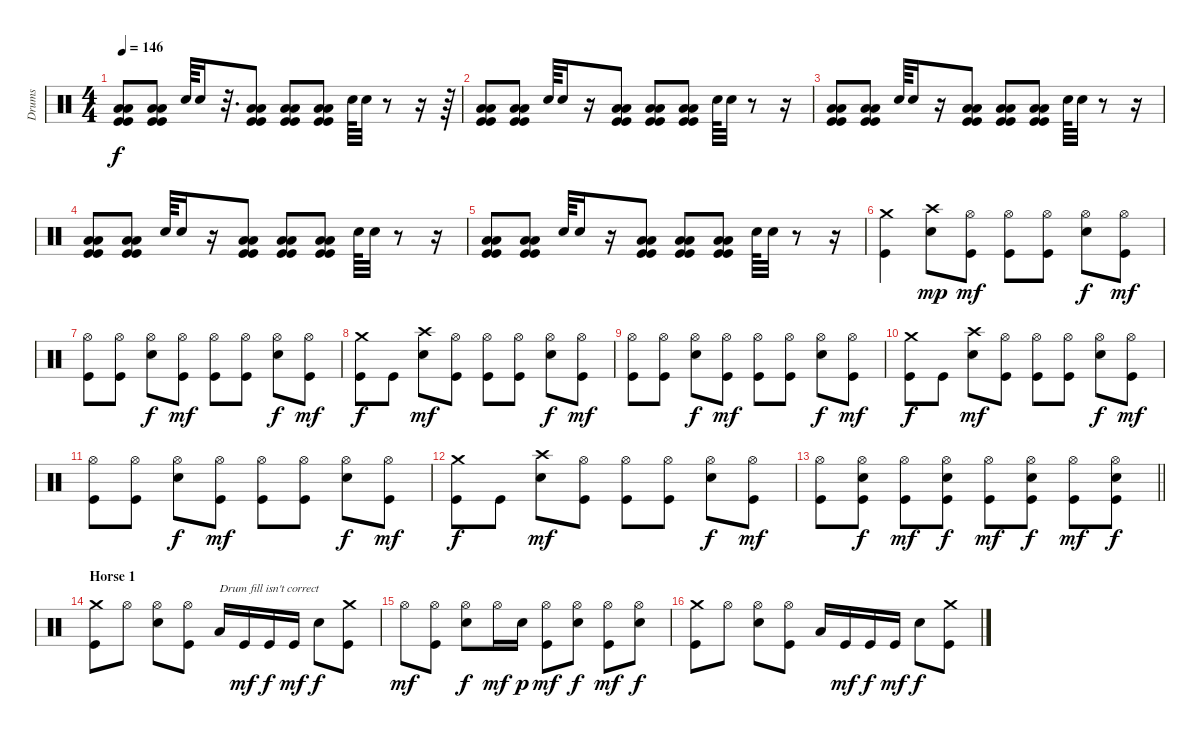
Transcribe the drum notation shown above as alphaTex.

\track ("Drums" "Drums") {instrument percussion}
\staff {score}
\articulation defaults
\ts (4 4)
\tempo 146
\clef neutral
\ks c
("Low Tom (hit)" "Low Floor Tom (hit)" "Kick (hit)" "Kick (hit)").8{dy f} ("Low Tom (hit)" "Low Floor Tom (hit)" "Kick (hit)" "Kick (hit)").8 "Snare (hit) 2".64 "Snare (hit) 2".16 r.32{d} ("Low Tom (hit)" "Low Floor Tom (hit)" "Kick (hit)" "Kick (hit)").8 ("Low Tom (hit)" "Low Floor Tom (hit)" "Kick (hit)" "Kick (hit)").8 ("Low Tom (hit)" "Low Floor Tom (hit)" "Kick (hit)" "Kick (hit)").8 "Snare (hit) 2".64 "Snare (hit) 2".32 r.8 r.16 r.64 |
("Low Tom (hit)" "Low Floor Tom (hit)" "Kick (hit)" "Kick (hit)").8 ("Low Tom (hit)" "Low Floor Tom (hit)" "Kick (hit)" "Kick (hit)").8 "Snare (hit) 2".64 "Snare (hit) 2".16 r.16 ("Low Tom (hit)" "Low Floor Tom (hit)" "Kick (hit)" "Kick (hit)").8 ("Low Tom (hit)" "Low Floor Tom (hit)" "Kick (hit)" "Kick (hit)").8 ("Low Tom (hit)" "Low Floor Tom (hit)" "Kick (hit)" "Kick (hit)").8 "Snare (hit) 2".64 "Snare (hit) 2".32 r.8 r.16 |
("Low Tom (hit)" "Low Floor Tom (hit)" "Kick (hit)" "Kick (hit)").8 ("Low Tom (hit)" "Low Floor Tom (hit)" "Kick (hit)" "Kick (hit)").8 "Snare (hit) 2".64 "Snare (hit) 2".16 r.16 ("Low Tom (hit)" "Low Floor Tom (hit)" "Kick (hit)" "Kick (hit)").8 ("Low Tom (hit)" "Low Floor Tom (hit)" "Kick (hit)" "Kick (hit)").8 ("Low Tom (hit)" "Low Floor Tom (hit)" "Kick (hit)" "Kick (hit)").8 "Snare (hit) 2".64 "Snare (hit) 2".32 r.8 r.16 |
("Low Tom (hit)" "Low Floor Tom (hit)" "Kick (hit)" "Kick (hit)").8 ("Low Tom (hit)" "Low Floor Tom (hit)" "Kick (hit)" "Kick (hit)").8 "Snare (hit) 2".64 "Snare (hit) 2".16 r.16 ("Low Tom (hit)" "Low Floor Tom (hit)" "Kick (hit)" "Kick (hit)").8 ("Low Tom (hit)" "Low Floor Tom (hit)" "Kick (hit)" "Kick (hit)").8 ("Low Tom (hit)" "Low Floor Tom (hit)" "Kick (hit)" "Kick (hit)").8 "Snare (hit) 2".64 "Snare (hit) 2".32 r.8 r.16 |
("Low Tom (hit)" "Low Floor Tom (hit)" "Kick (hit)" "Kick (hit)").8 ("Low Tom (hit)" "Low Floor Tom (hit)" "Kick (hit)" "Kick (hit)").8 "Snare (hit) 2".64 "Snare (hit) 2".16 r.16 ("Low Tom (hit)" "Low Floor Tom (hit)" "Kick (hit)" "Kick (hit)").8 ("Low Tom (hit)" "Low Floor Tom (hit)" "Kick (hit)" "Kick (hit)").8 ("Low Tom (hit)" "Low Floor Tom (hit)" "Kick (hit)" "Kick (hit)").8 "Snare (hit) 2".64 "Snare (hit) 2".32 r.8 r.16 |
("Crash medium (hit)" "Kick (hit)").4 ("Crash high (hit)" "Snare (hit) 2").8{dy mp} ("Hi-Hat (open)" "Kick (hit)").8{dy mf} ("Hi-Hat (open)" "Kick (hit)").8 ("Hi-Hat (open)" "Kick (hit)").8 ("Hi-Hat (open)" "Snare (hit) 2").8{dy f} ("Hi-Hat (open)" "Kick (hit)").8{dy mf} |
("Hi-Hat (open)" "Kick (hit)").8 ("Hi-Hat (open)" "Kick (hit)").8 ("Hi-Hat (open)" "Snare (hit) 2").8{dy f} ("Hi-Hat (open)" "Kick (hit)").8{dy mf} ("Hi-Hat (open)" "Kick (hit)").8 ("Hi-Hat (open)" "Kick (hit)").8 ("Hi-Hat (open)" "Snare (hit) 2").8{dy f} ("Hi-Hat (open)" "Kick (hit)").8{dy mf} |
("Crash medium (hit)" "Kick (hit)").8{dy f} "Kick (hit)".8 ("Crash high (hit)" "Snare (hit) 2").8{dy mf} ("Hi-Hat (open)" "Kick (hit)").8 ("Hi-Hat (open)" "Kick (hit)").8 ("Hi-Hat (open)" "Kick (hit)").8 ("Hi-Hat (open)" "Snare (hit) 2").8{dy f} ("Hi-Hat (open)" "Kick (hit)").8{dy mf} |
("Hi-Hat (open)" "Kick (hit)").8 ("Hi-Hat (open)" "Kick (hit)").8 ("Hi-Hat (open)" "Snare (hit) 2").8{dy f} ("Hi-Hat (open)" "Kick (hit)").8{dy mf} ("Hi-Hat (open)" "Kick (hit)").8 ("Hi-Hat (open)" "Kick (hit)").8 ("Hi-Hat (open)" "Snare (hit) 2").8{dy f} ("Hi-Hat (open)" "Kick (hit)").8{dy mf} |
("Crash medium (hit)" "Kick (hit)").8{dy f} "Kick (hit)".8 ("Crash high (hit)" "Snare (hit) 2").8{dy mf} ("Hi-Hat (open)" "Kick (hit)").8 ("Hi-Hat (open)" "Kick (hit)").8 ("Hi-Hat (open)" "Kick (hit)").8 ("Hi-Hat (open)" "Snare (hit) 2").8{dy f} ("Hi-Hat (open)" "Kick (hit)").8{dy mf} |
("Hi-Hat (open)" "Kick (hit)").8 ("Hi-Hat (open)" "Kick (hit)").8 ("Hi-Hat (open)" "Snare (hit) 2").8{dy f} ("Hi-Hat (open)" "Kick (hit)").8{dy mf} ("Hi-Hat (open)" "Kick (hit)").8 ("Hi-Hat (open)" "Kick (hit)").8 ("Hi-Hat (open)" "Snare (hit) 2").8{dy f} ("Hi-Hat (open)" "Kick (hit)").8{dy mf} |
("Crash medium (hit)" "Kick (hit)").8{dy f} "Kick (hit)".8 ("Crash high (hit)" "Snare (hit) 2").8{dy mf} ("Hi-Hat (open)" "Kick (hit)").8 ("Hi-Hat (open)" "Kick (hit)").8 ("Hi-Hat (open)" "Kick (hit)").8 ("Hi-Hat (open)" "Snare (hit) 2").8{dy f} ("Hi-Hat (open)" "Kick (hit)").8{dy mf} |
\barLineRight lightlight
("Hi-Hat (open)" "Kick (hit)").8 ("Hi-Hat (open)" "Snare (hit) 2" "Kick (hit)").8{dy f} ("Hi-Hat (open)" "Kick (hit)").8{dy mf} ("Hi-Hat (open)" "Snare (hit) 2" "Kick (hit)").8{dy f} ("Hi-Hat (open)" "Kick (hit)").8{dy mf} ("Hi-Hat (open)" "Snare (hit) 2" "Kick (hit)").8{dy f} ("Hi-Hat (open)" "Kick (hit)").8{dy mf} ("Hi-Hat (open)" "Snare (hit) 2" "Kick (hit)").8{dy f} |
\section ("" "Horse 1")
("Crash medium (hit)" "Kick (hit)").8 "Hi-Hat (open)".8 ("Hi-Hat (open)" "Snare (hit) 2").8 ("Hi-Hat (open)" "Kick (hit)").8 "Low Floor Tom (hit)".16{txt "Drum fill isn't correct"} "Kick (hit)".16{dy mf} "Kick (hit)".16{dy f} "Kick (hit)".16{dy mf} "Snare (hit) 2".8{dy f} ("Crash medium (hit)" "Kick (hit)").8 |
"Hi-Hat (open)".8{dy mf} ("Hi-Hat (open)" "Kick (hit)").8 ("Hi-Hat (open)" "Snare (hit) 2").8{dy f} "Hi-Hat (open)".16{dy mf} "Snare (hit) 2".16{dy p} ("Hi-Hat (open)" "Kick (hit)").8{dy mf} ("Hi-Hat (open)" "Snare (hit) 2").8{dy f} ("Hi-Hat (open)" "Kick (hit)").8{dy mf} ("Hi-Hat (open)" "Snare (hit) 2").8{dy f} |
("Crash medium (hit)" "Kick (hit)").8 "Hi-Hat (open)".8 ("Hi-Hat (open)" "Snare (hit) 2").8 ("Hi-Hat (open)" "Kick (hit)").8 "Low Floor Tom (hit)".16 "Kick (hit)".16{dy mf} "Kick (hit)".16{dy f} "Kick (hit)".16{dy mf} "Snare (hit) 2".8{dy f} ("Crash medium (hit)" "Kick (hit)").8
